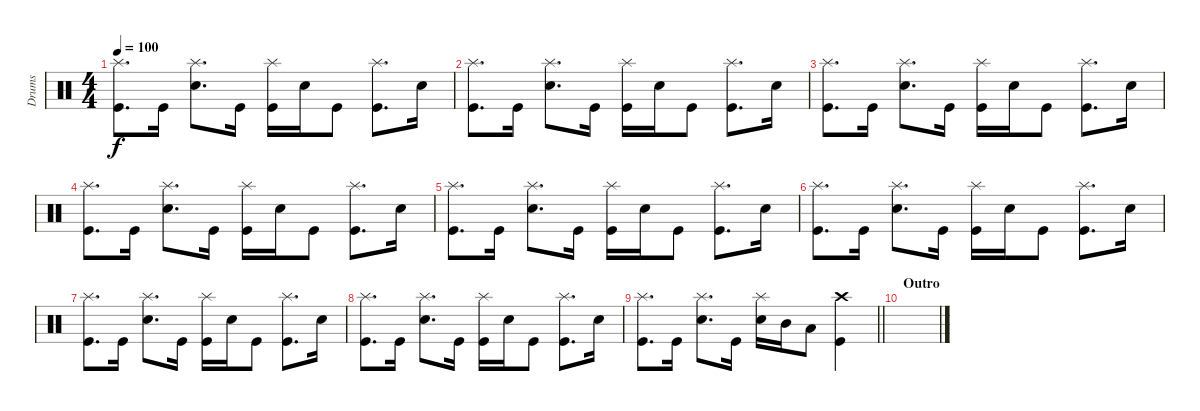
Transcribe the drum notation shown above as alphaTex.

\track ("Drums" "Drums") {instrument percussion}
\staff {score}
\articulation defaults
\ts (4 4)
\tempo 100
\clef neutral
\ks c
("Splash (hit)" "Kick (hit)").8{d dy f} "Kick (hit)".16 ("Splash (hit)" "Snare (hit) 2").8{d} "Kick (hit)".16 ("Splash (hit)" "Kick (hit)").16 "Snare (hit) 2".16 "Kick (hit)".8 ("Splash (hit)" "Kick (hit)").8{d} "Snare (hit) 2".16 |
("Splash (hit)" "Kick (hit)").8{d} "Kick (hit)".16 ("Splash (hit)" "Snare (hit) 2").8{d} "Kick (hit)".16 ("Splash (hit)" "Kick (hit)").16 "Snare (hit) 2".16 "Kick (hit)".8 ("Splash (hit)" "Kick (hit)").8{d} "Snare (hit) 2".16 |
("Splash (hit)" "Kick (hit)").8{d} "Kick (hit)".16 ("Splash (hit)" "Snare (hit) 2").8{d} "Kick (hit)".16 ("Splash (hit)" "Kick (hit)").16 "Snare (hit) 2".16 "Kick (hit)".8 ("Splash (hit)" "Kick (hit)").8{d} "Snare (hit) 2".16 |
("Splash (hit)" "Kick (hit)").8{d} "Kick (hit)".16 ("Splash (hit)" "Snare (hit) 2").8{d} "Kick (hit)".16 ("Splash (hit)" "Kick (hit)").16 "Snare (hit) 2".16 "Kick (hit)".8 ("Splash (hit)" "Kick (hit)").8{d} "Snare (hit) 2".16 |
("Splash (hit)" "Kick (hit)").8{d} "Kick (hit)".16 ("Splash (hit)" "Snare (hit) 2").8{d} "Kick (hit)".16 ("Splash (hit)" "Kick (hit)").16 "Snare (hit) 2".16 "Kick (hit)".8 ("Splash (hit)" "Kick (hit)").8{d} "Snare (hit) 2".16 |
("Splash (hit)" "Kick (hit)").8{d} "Kick (hit)".16 ("Splash (hit)" "Snare (hit) 2").8{d} "Kick (hit)".16 ("Splash (hit)" "Kick (hit)").16 "Snare (hit) 2".16 "Kick (hit)".8 ("Splash (hit)" "Kick (hit)").8{d} "Snare (hit) 2".16 |
("Splash (hit)" "Kick (hit)").8{d} "Kick (hit)".16 ("Splash (hit)" "Snare (hit) 2").8{d} "Kick (hit)".16 ("Splash (hit)" "Kick (hit)").16 "Snare (hit) 2".16 "Kick (hit)".8 ("Splash (hit)" "Kick (hit)").8{d} "Snare (hit) 2".16 |
("Splash (hit)" "Kick (hit)").8{d} "Kick (hit)".16 ("Splash (hit)" "Snare (hit) 2").8{d} "Kick (hit)".16 ("Splash (hit)" "Kick (hit)").16 "Snare (hit) 2".16 "Kick (hit)".8 ("Splash (hit)" "Kick (hit)").8{d} "Snare (hit) 2".16 |
\barLineRight lightlight
("Splash (hit)" "Kick (hit)").8{d} "Kick (hit)".16 ("Splash (hit)" "Snare (hit) 2").8{d} "Kick (hit)".16 ("Splash (hit)" "Snare (hit) 2").16 "Mid Tom (hit)".16 "Low Tom (hit)".8 ("Crash high (hit)" "Kick (hit)").4 |
\section ("" "Outro")
